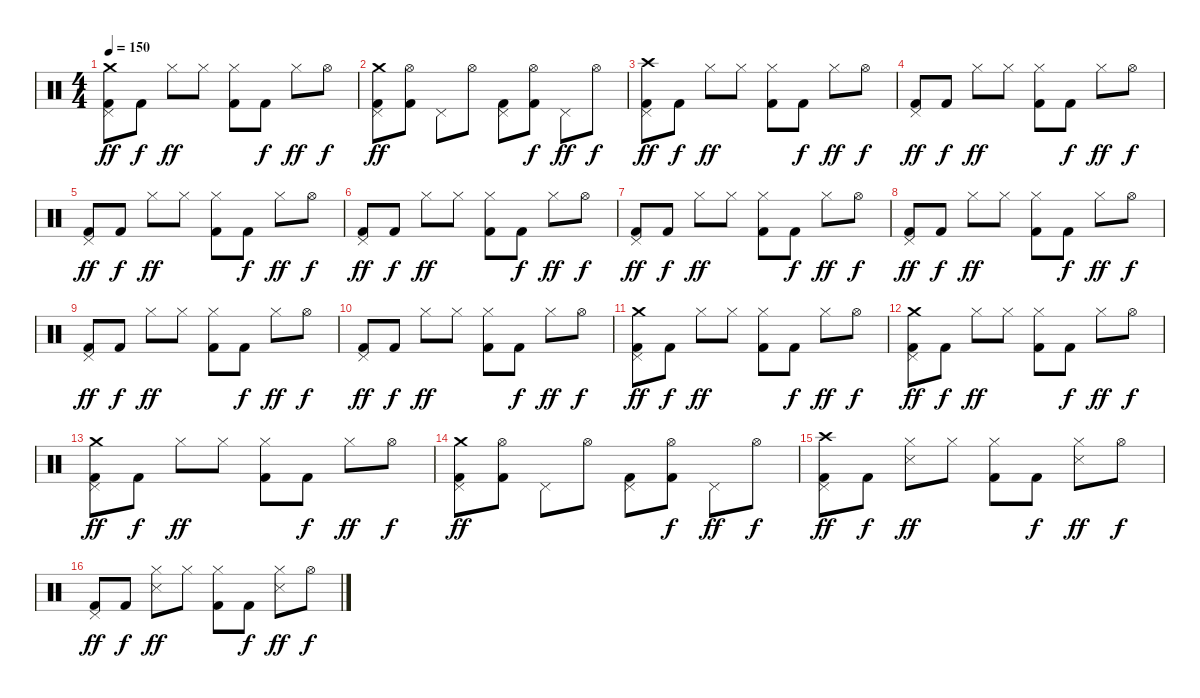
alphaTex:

\track "" {instrument percussion}
\staff {score}
\articulation defaults
\ts (4 4)
\tempo 150
\clef neutral
\ks c
("Crash medium (hit)" "Pedal Hi-Hat (hit)" "Kick (hit) 2").8{dy ff} "Kick (hit) 2".8{dy f} "Hi-Hat (closed)".8{dy ff} "Hi-Hat (closed)".8 ("Hi-Hat (closed)" "Kick (hit) 2").8 "Kick (hit) 2".8{dy f} "Hi-Hat (closed)".8{dy ff} "Hi-Hat (open)".8{dy f} |
("Crash medium (hit)" "Pedal Hi-Hat (hit)" "Kick (hit) 2").8{dy ff} ("Hi-Hat (open)" "Kick (hit) 2").8 "Pedal Hi-Hat (hit)".8 "Hi-Hat (open)".8 ("Pedal Hi-Hat (hit)" "Kick (hit) 2").8 ("Hi-Hat (open)" "Kick (hit) 2").8{dy f} "Pedal Hi-Hat (hit)".8{dy ff} "Hi-Hat (open)".8{dy f} |
("Crash high (hit)" "Pedal Hi-Hat (hit)" "Kick (hit) 2").8{dy ff} "Kick (hit) 2".8{dy f} "Hi-Hat (closed)".8{dy ff} "Hi-Hat (closed)".8 ("Hi-Hat (closed)" "Kick (hit) 2").8 "Kick (hit) 2".8{dy f} "Hi-Hat (closed)".8{dy ff} "Hi-Hat (open)".8{dy f} |
("Pedal Hi-Hat (hit)" "Kick (hit) 2").8{dy ff} "Kick (hit) 2".8{dy f} "Hi-Hat (closed)".8{dy ff} "Hi-Hat (closed)".8 ("Hi-Hat (closed)" "Kick (hit) 2").8 "Kick (hit) 2".8{dy f} "Hi-Hat (closed)".8{dy ff} "Hi-Hat (open)".8{dy f} |
("Pedal Hi-Hat (hit)" "Kick (hit) 2").8{dy ff} "Kick (hit) 2".8{dy f} "Hi-Hat (closed)".8{dy ff} "Hi-Hat (closed)".8 ("Hi-Hat (closed)" "Kick (hit) 2").8 "Kick (hit) 2".8{dy f} "Hi-Hat (closed)".8{dy ff} "Hi-Hat (open)".8{dy f} |
("Pedal Hi-Hat (hit)" "Kick (hit) 2").8{dy ff} "Kick (hit) 2".8{dy f} "Hi-Hat (closed)".8{dy ff} "Hi-Hat (closed)".8 ("Hi-Hat (closed)" "Kick (hit) 2").8 "Kick (hit) 2".8{dy f} "Hi-Hat (closed)".8{dy ff} "Hi-Hat (open)".8{dy f} |
("Pedal Hi-Hat (hit)" "Kick (hit) 2").8{dy ff} "Kick (hit) 2".8{dy f} "Hi-Hat (closed)".8{dy ff} "Hi-Hat (closed)".8 ("Hi-Hat (closed)" "Kick (hit) 2").8 "Kick (hit) 2".8{dy f} "Hi-Hat (closed)".8{dy ff} "Hi-Hat (open)".8{dy f} |
("Pedal Hi-Hat (hit)" "Kick (hit) 2").8{dy ff} "Kick (hit) 2".8{dy f} "Hi-Hat (closed)".8{dy ff} "Hi-Hat (closed)".8 ("Hi-Hat (closed)" "Kick (hit) 2").8 "Kick (hit) 2".8{dy f} "Hi-Hat (closed)".8{dy ff} "Hi-Hat (open)".8{dy f} |
("Pedal Hi-Hat (hit)" "Kick (hit) 2").8{dy ff} "Kick (hit) 2".8{dy f} "Hi-Hat (closed)".8{dy ff} "Hi-Hat (closed)".8 ("Hi-Hat (closed)" "Kick (hit) 2").8 "Kick (hit) 2".8{dy f} "Hi-Hat (closed)".8{dy ff} "Hi-Hat (open)".8{dy f} |
("Pedal Hi-Hat (hit)" "Kick (hit) 2").8{dy ff} "Kick (hit) 2".8{dy f} "Hi-Hat (closed)".8{dy ff} "Hi-Hat (closed)".8 ("Hi-Hat (closed)" "Kick (hit) 2").8 "Kick (hit) 2".8{dy f} "Hi-Hat (closed)".8{dy ff} "Hi-Hat (open)".8{dy f} |
("Crash medium (hit)" "Pedal Hi-Hat (hit)" "Kick (hit) 2").8{dy ff} "Kick (hit) 2".8{dy f} "Hi-Hat (closed)".8{dy ff} "Hi-Hat (closed)".8 ("Hi-Hat (closed)" "Kick (hit) 2").8 "Kick (hit) 2".8{dy f} "Hi-Hat (closed)".8{dy ff} "Hi-Hat (open)".8{dy f} |
("Crash medium (hit)" "Pedal Hi-Hat (hit)" "Kick (hit) 2").8{dy ff} "Kick (hit) 2".8{dy f} "Hi-Hat (closed)".8{dy ff} "Hi-Hat (closed)".8 ("Hi-Hat (closed)" "Kick (hit) 2").8 "Kick (hit) 2".8{dy f} "Hi-Hat (closed)".8{dy ff} "Hi-Hat (open)".8{dy f} |
("Crash medium (hit)" "Pedal Hi-Hat (hit)" "Kick (hit) 2").8{dy ff} "Kick (hit) 2".8{dy f} "Hi-Hat (closed)".8{dy ff} "Hi-Hat (closed)".8 ("Hi-Hat (closed)" "Kick (hit) 2").8 "Kick (hit) 2".8{dy f} "Hi-Hat (closed)".8{dy ff} "Hi-Hat (open)".8{dy f} |
("Crash medium (hit)" "Pedal Hi-Hat (hit)" "Kick (hit) 2").8{dy ff} ("Hi-Hat (open)" "Kick (hit) 2").8 "Pedal Hi-Hat (hit)".8 "Hi-Hat (open)".8 ("Pedal Hi-Hat (hit)" "Kick (hit) 2").8 ("Hi-Hat (open)" "Kick (hit) 2").8{dy f} "Pedal Hi-Hat (hit)".8{dy ff} "Hi-Hat (open)".8{dy f} |
("Crash high (hit)" "Pedal Hi-Hat (hit)" "Kick (hit) 2").8{dy ff} "Kick (hit) 2".8{dy f} ("Hi-Hat (closed)" "Snare (side stick) 3").8{dy ff} "Hi-Hat (closed)".8 ("Hi-Hat (closed)" "Kick (hit) 2").8 "Kick (hit) 2".8{dy f} ("Hi-Hat (closed)" "Snare (side stick) 3").8{dy ff} "Hi-Hat (open)".8{dy f} |
("Pedal Hi-Hat (hit)" "Kick (hit) 2").8{dy ff} "Kick (hit) 2".8{dy f} ("Hi-Hat (closed)" "Snare (side stick) 3").8{dy ff} "Hi-Hat (closed)".8 ("Hi-Hat (closed)" "Kick (hit) 2").8 "Kick (hit) 2".8{dy f} ("Hi-Hat (closed)" "Snare (side stick) 3").8{dy ff} "Hi-Hat (open)".8{dy f}
